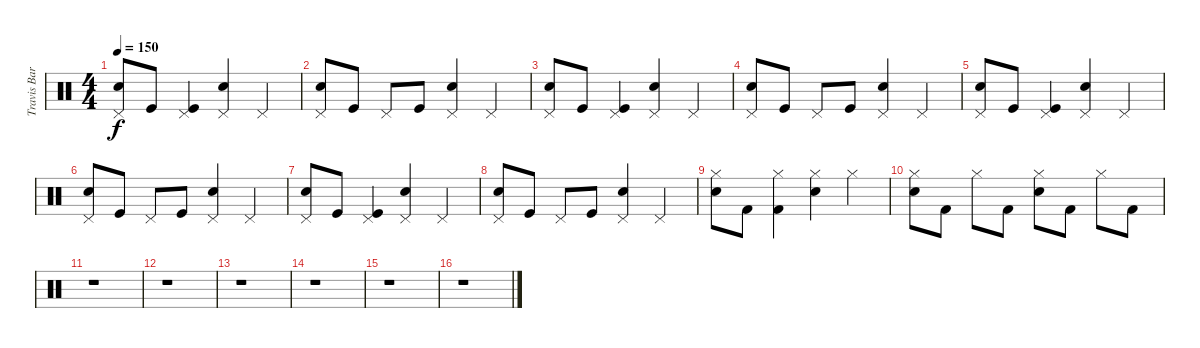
\track ("Travis Barker - Drums" "Travis Bar") {instrument percussion}
\staff {score}
\articulation defaults
\ts (4 4)
\tempo 150
\clef neutral
\ks c
("Pedal Hi-Hat (hit)" "Electric Snare (hit)").8{dy f} "Kick (hit)".8 ("Pedal Hi-Hat (hit)" "Kick (hit)").4 ("Pedal Hi-Hat (hit)" "Electric Snare (hit)").4 "Pedal Hi-Hat (hit)".4 |
("Pedal Hi-Hat (hit)" "Electric Snare (hit)").8 "Kick (hit)".8 "Pedal Hi-Hat (hit)".8 "Kick (hit)".8 ("Pedal Hi-Hat (hit)" "Electric Snare (hit)").4 "Pedal Hi-Hat (hit)".4 |
("Pedal Hi-Hat (hit)" "Electric Snare (hit)").8 "Kick (hit)".8 ("Pedal Hi-Hat (hit)" "Kick (hit)").4 ("Pedal Hi-Hat (hit)" "Electric Snare (hit)").4 "Pedal Hi-Hat (hit)".4 |
("Pedal Hi-Hat (hit)" "Electric Snare (hit)").8 "Kick (hit)".8 "Pedal Hi-Hat (hit)".8 "Kick (hit)".8 ("Pedal Hi-Hat (hit)" "Electric Snare (hit)").4 "Pedal Hi-Hat (hit)".4 |
("Pedal Hi-Hat (hit)" "Electric Snare (hit)").8 "Kick (hit)".8 ("Pedal Hi-Hat (hit)" "Kick (hit)").4 ("Pedal Hi-Hat (hit)" "Electric Snare (hit)").4 "Pedal Hi-Hat (hit)".4 |
("Pedal Hi-Hat (hit)" "Electric Snare (hit)").8 "Kick (hit)".8 "Pedal Hi-Hat (hit)".8 "Kick (hit)".8 ("Pedal Hi-Hat (hit)" "Electric Snare (hit)").4 "Pedal Hi-Hat (hit)".4 |
("Pedal Hi-Hat (hit)" "Electric Snare (hit)").8 "Kick (hit)".8 ("Pedal Hi-Hat (hit)" "Kick (hit)").4 ("Pedal Hi-Hat (hit)" "Electric Snare (hit)").4 "Pedal Hi-Hat (hit)".4 |
("Pedal Hi-Hat (hit)" "Electric Snare (hit)").8 "Kick (hit)".8 "Pedal Hi-Hat (hit)".8 "Kick (hit)".8 ("Pedal Hi-Hat (hit)" "Electric Snare (hit)").4 "Pedal Hi-Hat (hit)".4 |
("Hi-Hat (closed)" "Electric Snare (hit)").8 "Kick (hit) 2".8 ("Hi-Hat (closed)" "Kick (hit) 2").4 ("Hi-Hat (closed)" "Electric Snare (hit)").4 "Hi-Hat (closed)".4 |
("Hi-Hat (closed)" "Electric Snare (hit)").8 "Kick (hit) 2".8 "Hi-Hat (closed)".8 "Kick (hit) 2".8 ("Hi-Hat (closed)" "Electric Snare (hit)").8 "Kick (hit) 2".8 "Hi-Hat (closed)".8 "Kick (hit) 2".8 |
r.1 |
r.1 |
r.1 |
r.1 |
r.1 |
r.1
